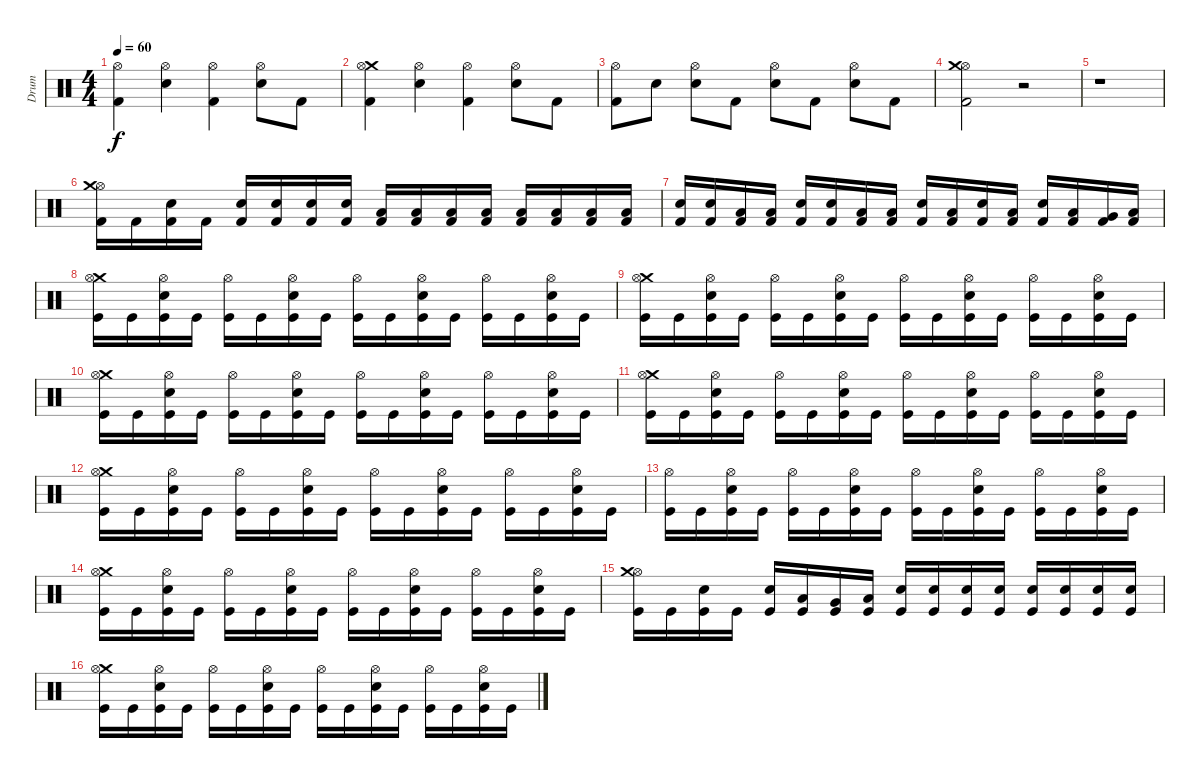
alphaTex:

\track ("Drum" "Drum") {instrument percussion}
\staff {score}
\articulation defaults
\ts (4 4)
\tempo 60
\clef neutral
\ks c
("Kick (hit) 2" "Hi-Hat (open)").4{dy f} ("Electric Snare (hit)" "Hi-Hat (open)").4 ("Kick (hit) 2" "Hi-Hat (open)").4 ("Electric Snare (hit)" "Hi-Hat (open)").8 "Kick (hit) 2".8 |
("Crash medium (hit)" "Kick (hit) 2" "Hi-Hat (open)").4 ("Electric Snare (hit)" "Hi-Hat (open)").4 ("Kick (hit) 2" "Hi-Hat (open)").4 ("Electric Snare (hit)" "Hi-Hat (open)").8 "Kick (hit) 2".8 |
("Kick (hit) 2" "Hi-Hat (open)").8 "Electric Snare (hit)".8 ("Electric Snare (hit)" "Hi-Hat (open)").8 "Kick (hit) 2".8 ("Electric Snare (hit)" "Hi-Hat (open)").8 "Kick (hit) 2".8 ("Electric Snare (hit)" "Hi-Hat (open)").8 "Kick (hit) 2".8 |
("Hi-Hat (open)" "Crash medium (hit)" "Kick (hit) 2").2 r.2 |
r.1 |
("Hi-Hat (open)" "Crash medium (hit)" "Kick (hit) 2").16 "Kick (hit) 2".16 ("Electric Snare (hit)" "Kick (hit) 2").16 "Kick (hit) 2".16 ("Electric Snare (hit)" "Kick (hit) 2").16 ("Electric Snare (hit)" "Kick (hit) 2").16 ("Electric Snare (hit)" "Kick (hit) 2").16 ("Electric Snare (hit)" "Kick (hit) 2").16 ("Low Tom (hit)" "Kick (hit) 2").16 ("Low Tom (hit)" "Kick (hit) 2").16 ("Low Tom (hit)" "Kick (hit) 2").16 ("Low Tom (hit)" "Kick (hit) 2").16 ("Low Tom (hit)" "Kick (hit) 2").16 ("Low Tom (hit)" "Kick (hit) 2").16 ("Low Tom (hit)" "Kick (hit) 2").16 ("Low Tom (hit)" "Kick (hit) 2").16 |
("Electric Snare (hit)" "Kick (hit) 2").16 ("Electric Snare (hit)" "Kick (hit) 2").16 ("Low Tom (hit)" "Kick (hit) 2").16 ("Low Tom (hit)" "Kick (hit) 2").16 ("Electric Snare (hit)" "Kick (hit) 2").16 ("Electric Snare (hit)" "Kick (hit) 2").16 ("Low Tom (hit)" "Kick (hit) 2").16 ("Low Tom (hit)" "Kick (hit) 2").16 ("Electric Snare (hit)" "Kick (hit) 2").16 ("Low Tom (hit)" "Kick (hit) 2").16 ("Electric Snare (hit)" "Kick (hit) 2").16 ("Low Tom (hit)" "Kick (hit) 2").16 ("Electric Snare (hit)" "Kick (hit) 2").16 ("Low Tom (hit)" "Kick (hit) 2").16 ("Very Low Tom (hit)" "Kick (hit) 2").16 ("Low Floor Tom (hit)" "Kick (hit) 2").16 |
("Crash medium (hit)" "Hi-Hat (open)" "Kick (hit)").16 "Kick (hit)".16 ("Electric Snare (hit)" "Hi-Hat (open)" "Kick (hit)").16 "Kick (hit)".16 ("Hi-Hat (open)" "Kick (hit)").16 "Kick (hit)".16 ("Electric Snare (hit)" "Hi-Hat (open)" "Kick (hit)").16 "Kick (hit)".16 ("Hi-Hat (open)" "Kick (hit)").16 "Kick (hit)".16 ("Electric Snare (hit)" "Hi-Hat (open)" "Kick (hit)").16 "Kick (hit)".16 ("Hi-Hat (open)" "Kick (hit)").16 "Kick (hit)".16 ("Electric Snare (hit)" "Hi-Hat (open)" "Kick (hit)").16 "Kick (hit)".16 |
("Crash medium (hit)" "Hi-Hat (open)" "Kick (hit)").16 "Kick (hit)".16 ("Electric Snare (hit)" "Hi-Hat (open)" "Kick (hit)").16 "Kick (hit)".16 ("Hi-Hat (open)" "Kick (hit)").16 "Kick (hit)".16 ("Electric Snare (hit)" "Hi-Hat (open)" "Kick (hit)").16 "Kick (hit)".16 ("Hi-Hat (open)" "Kick (hit)").16 "Kick (hit)".16 ("Electric Snare (hit)" "Hi-Hat (open)" "Kick (hit)").16 "Kick (hit)".16 ("Hi-Hat (open)" "Kick (hit)").16 "Kick (hit)".16 ("Electric Snare (hit)" "Hi-Hat (open)" "Kick (hit)").16 "Kick (hit)".16 |
("Crash medium (hit)" "Hi-Hat (open)" "Kick (hit)").16 "Kick (hit)".16 ("Electric Snare (hit)" "Hi-Hat (open)" "Kick (hit)").16 "Kick (hit)".16 ("Hi-Hat (open)" "Kick (hit)").16 "Kick (hit)".16 ("Electric Snare (hit)" "Hi-Hat (open)" "Kick (hit)").16 "Kick (hit)".16 ("Hi-Hat (open)" "Kick (hit)").16 "Kick (hit)".16 ("Electric Snare (hit)" "Hi-Hat (open)" "Kick (hit)").16 "Kick (hit)".16 ("Hi-Hat (open)" "Kick (hit)").16 "Kick (hit)".16 ("Electric Snare (hit)" "Hi-Hat (open)" "Kick (hit)").16 "Kick (hit)".16 |
("Crash medium (hit)" "Hi-Hat (open)" "Kick (hit)").16 "Kick (hit)".16 ("Electric Snare (hit)" "Hi-Hat (open)" "Kick (hit)").16 "Kick (hit)".16 ("Hi-Hat (open)" "Kick (hit)").16 "Kick (hit)".16 ("Electric Snare (hit)" "Hi-Hat (open)" "Kick (hit)").16 "Kick (hit)".16 ("Hi-Hat (open)" "Kick (hit)").16 "Kick (hit)".16 ("Electric Snare (hit)" "Hi-Hat (open)" "Kick (hit)").16 "Kick (hit)".16 ("Hi-Hat (open)" "Kick (hit)").16 "Kick (hit)".16 ("Electric Snare (hit)" "Hi-Hat (open)" "Kick (hit)").16 "Kick (hit)".16 |
("Crash medium (hit)" "Hi-Hat (open)" "Kick (hit)").16 "Kick (hit)".16 ("Electric Snare (hit)" "Hi-Hat (open)" "Kick (hit)").16 "Kick (hit)".16 ("Hi-Hat (open)" "Kick (hit)").16 "Kick (hit)".16 ("Electric Snare (hit)" "Hi-Hat (open)" "Kick (hit)").16 "Kick (hit)".16 ("Hi-Hat (open)" "Kick (hit)").16 "Kick (hit)".16 ("Electric Snare (hit)" "Hi-Hat (open)" "Kick (hit)").16 "Kick (hit)".16 ("Hi-Hat (open)" "Kick (hit)").16 "Kick (hit)".16 ("Electric Snare (hit)" "Hi-Hat (open)" "Kick (hit)").16 "Kick (hit)".16 |
("Hi-Hat (open)" "Kick (hit)").16 "Kick (hit)".16 ("Electric Snare (hit)" "Hi-Hat (open)" "Kick (hit)").16 "Kick (hit)".16 ("Hi-Hat (open)" "Kick (hit)").16 "Kick (hit)".16 ("Electric Snare (hit)" "Hi-Hat (open)" "Kick (hit)").16 "Kick (hit)".16 ("Hi-Hat (open)" "Kick (hit)").16 "Kick (hit)".16 ("Electric Snare (hit)" "Hi-Hat (open)" "Kick (hit)").16 "Kick (hit)".16 ("Hi-Hat (open)" "Kick (hit)").16 "Kick (hit)".16 ("Electric Snare (hit)" "Hi-Hat (open)" "Kick (hit)").16 "Kick (hit)".16 |
("Crash medium (hit)" "Hi-Hat (open)" "Kick (hit)").16 "Kick (hit)".16 ("Electric Snare (hit)" "Hi-Hat (open)" "Kick (hit)").16 "Kick (hit)".16 ("Hi-Hat (open)" "Kick (hit)").16 "Kick (hit)".16 ("Electric Snare (hit)" "Hi-Hat (open)" "Kick (hit)").16 "Kick (hit)".16 ("Hi-Hat (open)" "Kick (hit)").16 "Kick (hit)".16 ("Electric Snare (hit)" "Hi-Hat (open)" "Kick (hit)").16 "Kick (hit)".16 ("Hi-Hat (open)" "Kick (hit)").16 "Kick (hit)".16 ("Electric Snare (hit)" "Hi-Hat (open)" "Kick (hit)").16 "Kick (hit)".16 |
("Hi-Hat (open)" "Crash medium (hit)" "Kick (hit)").16 "Kick (hit)".16 ("Electric Snare (hit)" "Kick (hit)").16 "Kick (hit)".16 ("Electric Snare (hit)" "Kick (hit)").16 ("Low Tom (hit)" "Kick (hit)").16 ("Very Low Tom (hit)" "Kick (hit)").16 ("Low Floor Tom (hit)" "Kick (hit)").16 ("Electric Snare (hit)" "Kick (hit)").16 ("Electric Snare (hit)" "Kick (hit)").16 ("Electric Snare (hit)" "Kick (hit)").16 ("Electric Snare (hit)" "Kick (hit)").16 ("Electric Snare (hit)" "Kick (hit)").16 ("Electric Snare (hit)" "Kick (hit)").16 ("Electric Snare (hit)" "Kick (hit)").16 ("Electric Snare (hit)" "Kick (hit)").16 |
("Crash medium (hit)" "Hi-Hat (open)" "Kick (hit)").16 "Kick (hit)".16 ("Electric Snare (hit)" "Hi-Hat (open)" "Kick (hit)").16 "Kick (hit)".16 ("Hi-Hat (open)" "Kick (hit)").16 "Kick (hit)".16 ("Electric Snare (hit)" "Hi-Hat (open)" "Kick (hit)").16 "Kick (hit)".16 ("Hi-Hat (open)" "Kick (hit)").16 "Kick (hit)".16 ("Electric Snare (hit)" "Hi-Hat (open)" "Kick (hit)").16 "Kick (hit)".16 ("Hi-Hat (open)" "Kick (hit)").16 "Kick (hit)".16 ("Electric Snare (hit)" "Hi-Hat (open)" "Kick (hit)").16 "Kick (hit)".16
